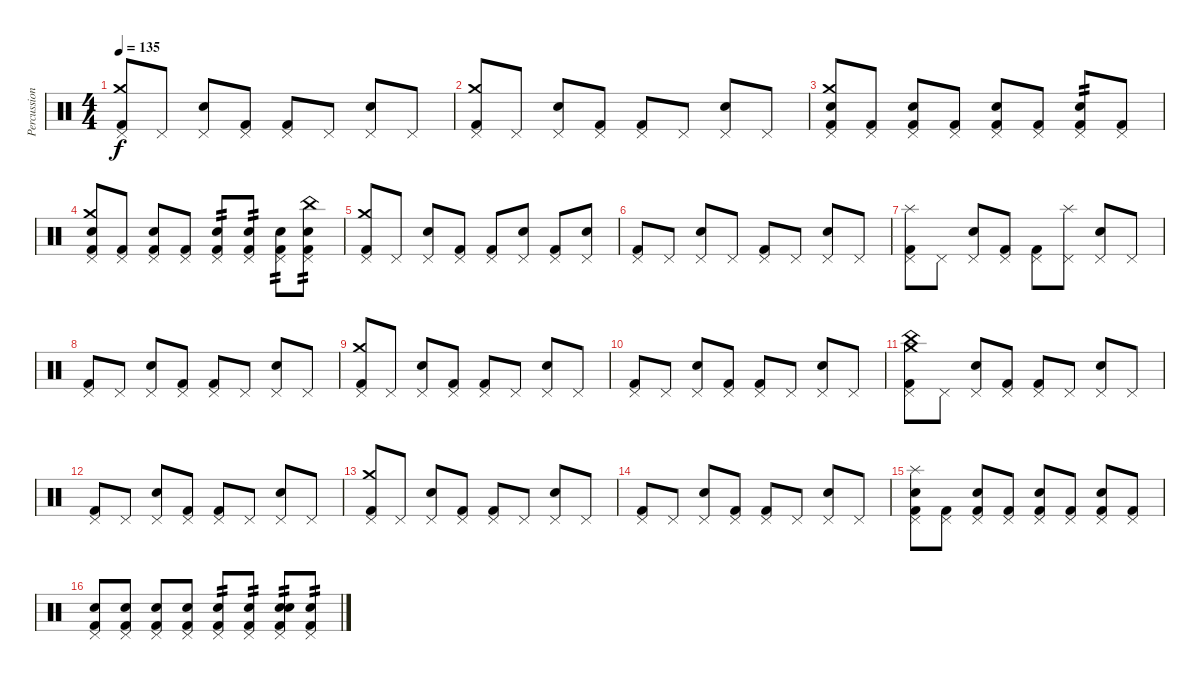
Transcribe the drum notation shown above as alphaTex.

\track ("Percussion" "Percussion") {instrument percussion}
\staff {score}
\articulation defaults
\ts (4 4)
\tempo 135
\clef neutral
\ks c
("Kick (hit) 2" "Crash medium (hit)" "Pedal Hi-Hat (hit)").8{dy f} "Pedal Hi-Hat (hit)".8 ("Snare (hit) 2" "Pedal Hi-Hat (hit)").8 ("Kick (hit) 2" "Pedal Hi-Hat (hit)").8 ("Kick (hit) 2" "Pedal Hi-Hat (hit)").8 "Pedal Hi-Hat (hit)".8 ("Snare (hit) 2" "Pedal Hi-Hat (hit)").8 "Pedal Hi-Hat (hit)".8 |
("Kick (hit) 2" "Crash medium (hit)" "Pedal Hi-Hat (hit)").8 "Pedal Hi-Hat (hit)".8 ("Snare (hit) 2" "Pedal Hi-Hat (hit)").8 ("Kick (hit) 2" "Pedal Hi-Hat (hit)").8 ("Kick (hit) 2" "Pedal Hi-Hat (hit)").8 "Pedal Hi-Hat (hit)".8 ("Snare (hit) 2" "Pedal Hi-Hat (hit)").8 "Pedal Hi-Hat (hit)".8 |
("Kick (hit) 2" "Snare (hit) 2" "Crash medium (hit)" "Pedal Hi-Hat (hit)").8 ("Kick (hit) 2" "Pedal Hi-Hat (hit)").8 ("Kick (hit) 2" "Snare (hit) 2" "Pedal Hi-Hat (hit)").8 ("Kick (hit) 2" "Pedal Hi-Hat (hit)").8 ("Kick (hit) 2" "Snare (hit) 2" "Pedal Hi-Hat (hit)").8 ("Kick (hit) 2" "Pedal Hi-Hat (hit)").8 ("Kick (hit) 2" "Snare (hit) 2" "Pedal Hi-Hat (hit)").8{tp 2} ("Kick (hit) 2" "Pedal Hi-Hat (hit)").8 |
("Kick (hit) 2" "Snare (hit) 2" "Crash medium (hit)" "Pedal Hi-Hat (hit)").8 ("Kick (hit) 2" "Pedal Hi-Hat (hit)").8 ("Kick (hit) 2" "Snare (hit) 2" "Pedal Hi-Hat (hit)").8 ("Kick (hit) 2" "Pedal Hi-Hat (hit)").8 ("Kick (hit) 2" "Snare (hit) 2" "Pedal Hi-Hat (hit)").8{tp 2} ("Kick (hit) 2" "Snare (hit) 2" "Pedal Hi-Hat (hit)").8{tp 2} ("Kick (hit) 2" "Snare (hit) 2" "Pedal Hi-Hat (hit)").8{tp 2} ("Kick (hit) 2" "Snare (hit) 2" "Pedal Hi-Hat (hit)" "China (hit)").8{tp 2} |
("Kick (hit) 2" "Pedal Hi-Hat (hit)" "Crash medium (hit)").8 "Pedal Hi-Hat (hit)".8 ("Snare (hit) 2" "Pedal Hi-Hat (hit)").8 ("Kick (hit) 2" "Pedal Hi-Hat (hit)").8 ("Kick (hit) 2" "Pedal Hi-Hat (hit)").8 ("Snare (hit) 2" "Pedal Hi-Hat (hit)").8 ("Kick (hit) 2" "Pedal Hi-Hat (hit)").8 ("Snare (hit) 2" "Pedal Hi-Hat (hit)").8 |
("Kick (hit) 2" "Pedal Hi-Hat (hit)").8 "Pedal Hi-Hat (hit)".8 ("Snare (hit) 2" "Pedal Hi-Hat (hit)").8 "Pedal Hi-Hat (hit)".8 ("Kick (hit) 2" "Pedal Hi-Hat (hit)").8 "Pedal Hi-Hat (hit)".8 ("Snare (hit) 2" "Pedal Hi-Hat (hit)").8 "Pedal Hi-Hat (hit)".8 |
("Kick (hit) 2" "Splash (hit)" "Pedal Hi-Hat (hit)").8 "Pedal Hi-Hat (hit)".8 ("Snare (hit) 2" "Pedal Hi-Hat (hit)").8 ("Kick (hit) 2" "Pedal Hi-Hat (hit)").8 ("Kick (hit) 2" "Pedal Hi-Hat (hit)").8 ("Splash (hit)" "Pedal Hi-Hat (hit)").8 ("Snare (hit) 2" "Pedal Hi-Hat (hit)").8 "Pedal Hi-Hat (hit)".8 |
("Kick (hit) 2" "Pedal Hi-Hat (hit)").8 "Pedal Hi-Hat (hit)".8 ("Snare (hit) 2" "Pedal Hi-Hat (hit)").8 ("Kick (hit) 2" "Pedal Hi-Hat (hit)").8 ("Kick (hit) 2" "Pedal Hi-Hat (hit)").8 "Pedal Hi-Hat (hit)".8 ("Snare (hit) 2" "Pedal Hi-Hat (hit)").8 "Pedal Hi-Hat (hit)".8 |
("Kick (hit) 2" "Crash medium (hit)" "Pedal Hi-Hat (hit)").8 "Pedal Hi-Hat (hit)".8 ("Snare (hit) 2" "Pedal Hi-Hat (hit)").8 ("Kick (hit) 2" "Pedal Hi-Hat (hit)").8 ("Kick (hit) 2" "Pedal Hi-Hat (hit)").8 "Pedal Hi-Hat (hit)".8 ("Snare (hit) 2" "Pedal Hi-Hat (hit)").8 "Pedal Hi-Hat (hit)".8 |
("Kick (hit) 2" "Pedal Hi-Hat (hit)").8 "Pedal Hi-Hat (hit)".8 ("Snare (hit) 2" "Pedal Hi-Hat (hit)").8 ("Kick (hit) 2" "Pedal Hi-Hat (hit)").8 ("Kick (hit) 2" "Pedal Hi-Hat (hit)").8 "Pedal Hi-Hat (hit)".8 ("Snare (hit) 2" "Pedal Hi-Hat (hit)").8 "Pedal Hi-Hat (hit)".8 |
("Kick (hit) 2" "China (hit)" "Pedal Hi-Hat (hit)" "Crash medium (hit)").8 "Pedal Hi-Hat (hit)".8 ("Snare (hit) 2" "Pedal Hi-Hat (hit)").8 ("Kick (hit) 2" "Pedal Hi-Hat (hit)").8 ("Kick (hit) 2" "Pedal Hi-Hat (hit)").8 "Pedal Hi-Hat (hit)".8 ("Snare (hit) 2" "Pedal Hi-Hat (hit)").8 "Pedal Hi-Hat (hit)".8 |
("Kick (hit) 2" "Pedal Hi-Hat (hit)").8 "Pedal Hi-Hat (hit)".8 ("Snare (hit) 2" "Pedal Hi-Hat (hit)").8 ("Kick (hit) 2" "Pedal Hi-Hat (hit)").8 ("Kick (hit) 2" "Pedal Hi-Hat (hit)").8 "Pedal Hi-Hat (hit)".8 ("Snare (hit) 2" "Pedal Hi-Hat (hit)").8 "Pedal Hi-Hat (hit)".8 |
("Kick (hit) 2" "Crash medium (hit)" "Pedal Hi-Hat (hit)").8 "Pedal Hi-Hat (hit)".8 ("Snare (hit) 2" "Pedal Hi-Hat (hit)").8 ("Kick (hit) 2" "Pedal Hi-Hat (hit)").8 ("Kick (hit) 2" "Pedal Hi-Hat (hit)").8 "Pedal Hi-Hat (hit)".8 ("Snare (hit) 2" "Pedal Hi-Hat (hit)").8 "Pedal Hi-Hat (hit)".8 |
("Kick (hit) 2" "Pedal Hi-Hat (hit)").8 "Pedal Hi-Hat (hit)".8 ("Snare (hit) 2" "Pedal Hi-Hat (hit)").8 ("Kick (hit) 2" "Pedal Hi-Hat (hit)").8 ("Kick (hit) 2" "Pedal Hi-Hat (hit)").8 "Pedal Hi-Hat (hit)".8 ("Snare (hit) 2" "Pedal Hi-Hat (hit)").8 "Pedal Hi-Hat (hit)".8 |
("Kick (hit) 2" "Snare (hit) 2" "Splash (hit)" "Pedal Hi-Hat (hit)").8 ("Kick (hit) 2" "Pedal Hi-Hat (hit)").8 ("Kick (hit) 2" "Snare (hit) 2" "Pedal Hi-Hat (hit)").8 ("Kick (hit) 2" "Pedal Hi-Hat (hit)").8 ("Kick (hit) 2" "Snare (hit) 2" "Pedal Hi-Hat (hit)").8 ("Kick (hit) 2" "Pedal Hi-Hat (hit)").8 ("Kick (hit) 2" "Snare (hit) 2" "Pedal Hi-Hat (hit)").8 ("Kick (hit) 2" "Pedal Hi-Hat (hit)").8 |
("Kick (hit) 2" "Snare (hit) 2" "Pedal Hi-Hat (hit)").8 ("Kick (hit) 2" "Snare (hit) 2" "Pedal Hi-Hat (hit)").8 ("Kick (hit) 2" "Snare (hit) 2" "Pedal Hi-Hat (hit)").8 ("Kick (hit) 2" "Snare (hit) 2" "Pedal Hi-Hat (hit)").8 ("Kick (hit) 2" "Snare (hit) 2" "Pedal Hi-Hat (hit)").8{tp 2} ("Kick (hit) 2" "Snare (hit) 2" "Pedal Hi-Hat (hit)").8{tp 2} ("Kick (hit) 2" "Snare (hit) 2" "Snare (hit)" "Pedal Hi-Hat (hit)").8{tp 2} ("Kick (hit) 2" "Snare (hit) 2" "Pedal Hi-Hat (hit)").8{tp 2}
